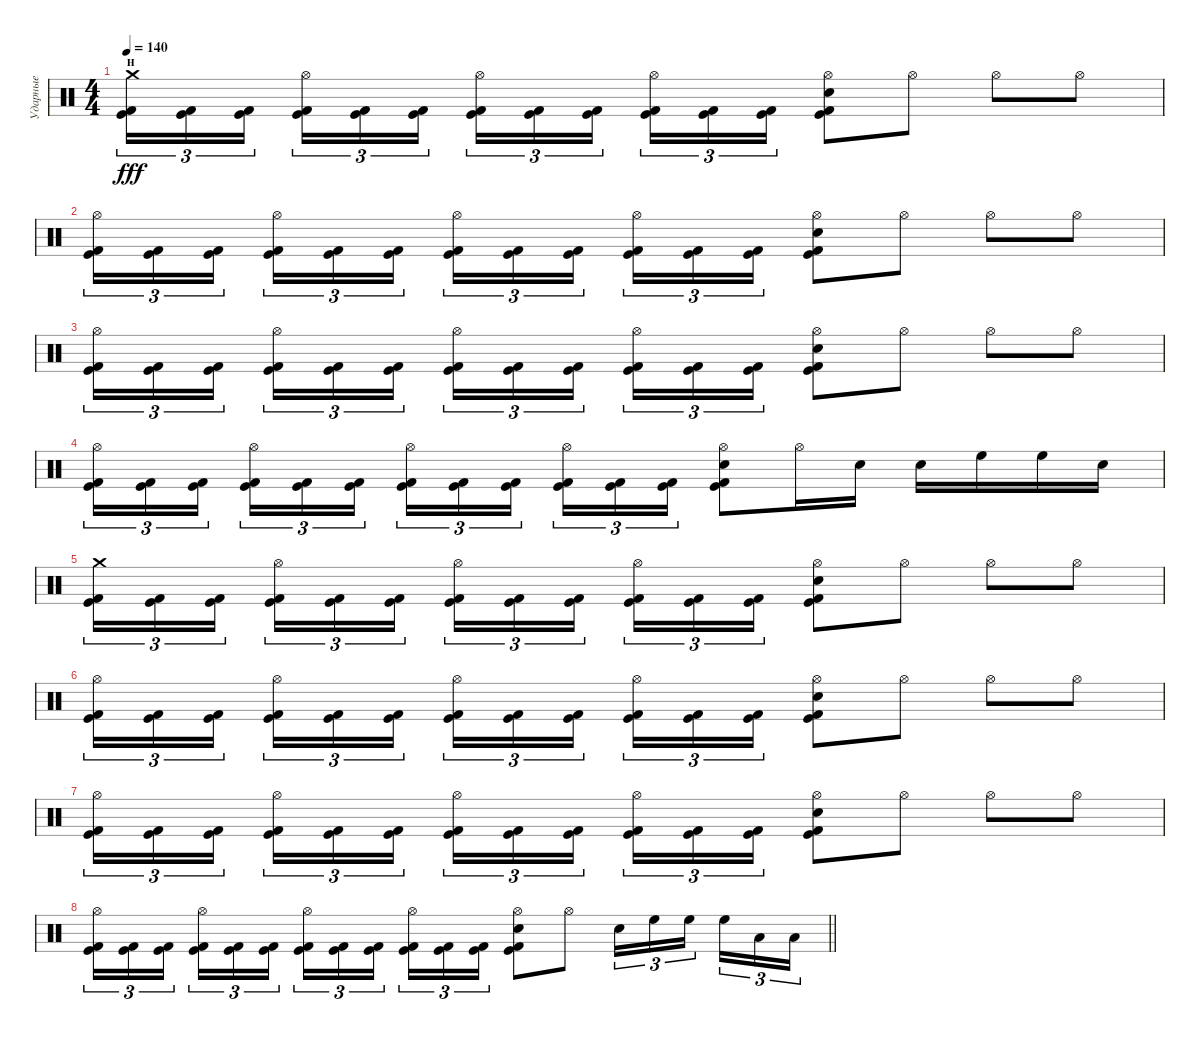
\track ("Ударные" "Ударные") {instrument percussion}
\staff {score}
\articulation defaults
\ts (4 4)
\section ("" "   н")
\tempo 140
\clef neutral
\ks c
("Kick (hit)" "Kick (hit) 2" "Crash medium (hit)").16{tu (3 2) dy fff} ("Kick (hit)" "Kick (hit) 2").16{tu (3 2)} ("Kick (hit)" "Kick (hit) 2").16{tu (3 2) beam splitsecondary} ("Hi-Hat (open)" "Kick (hit)" "Kick (hit) 2").16{tu (3 2)} ("Kick (hit)" "Kick (hit) 2").16{tu (3 2)} ("Kick (hit)" "Kick (hit) 2").16{tu (3 2)} ("Hi-Hat (open)" "Kick (hit)" "Kick (hit) 2").16{tu (3 2)} ("Kick (hit)" "Kick (hit) 2").16{tu (3 2)} ("Kick (hit)" "Kick (hit) 2").16{tu (3 2) beam splitsecondary} ("Hi-Hat (open)" "Kick (hit)" "Kick (hit) 2").16{tu (3 2)} ("Kick (hit)" "Kick (hit) 2").16{tu (3 2)} ("Kick (hit)" "Kick (hit) 2").16{tu (3 2)} ("Hi-Hat (open)" "Kick (hit)" "Kick (hit) 2" "Electric Snare (hit)").8 "Hi-Hat (open)".8 "Hi-Hat (open)".8 "Hi-Hat (open)".8 |
("Hi-Hat (open)" "Kick (hit)" "Kick (hit) 2").16{tu (3 2)} ("Kick (hit)" "Kick (hit) 2").16{tu (3 2)} ("Kick (hit)" "Kick (hit) 2").16{tu (3 2) beam splitsecondary} ("Hi-Hat (open)" "Kick (hit)" "Kick (hit) 2").16{tu (3 2)} ("Kick (hit)" "Kick (hit) 2").16{tu (3 2)} ("Kick (hit)" "Kick (hit) 2").16{tu (3 2)} ("Hi-Hat (open)" "Kick (hit)" "Kick (hit) 2").16{tu (3 2)} ("Kick (hit)" "Kick (hit) 2").16{tu (3 2)} ("Kick (hit)" "Kick (hit) 2").16{tu (3 2) beam splitsecondary} ("Hi-Hat (open)" "Kick (hit)" "Kick (hit) 2").16{tu (3 2)} ("Kick (hit)" "Kick (hit) 2").16{tu (3 2)} ("Kick (hit)" "Kick (hit) 2").16{tu (3 2)} ("Hi-Hat (open)" "Kick (hit)" "Kick (hit) 2" "Electric Snare (hit)").8 "Hi-Hat (open)".8 "Hi-Hat (open)".8 "Hi-Hat (open)".8 |
("Hi-Hat (open)" "Kick (hit)" "Kick (hit) 2").16{tu (3 2)} ("Kick (hit)" "Kick (hit) 2").16{tu (3 2)} ("Kick (hit)" "Kick (hit) 2").16{tu (3 2) beam splitsecondary} ("Hi-Hat (open)" "Kick (hit)" "Kick (hit) 2").16{tu (3 2)} ("Kick (hit)" "Kick (hit) 2").16{tu (3 2)} ("Kick (hit)" "Kick (hit) 2").16{tu (3 2)} ("Hi-Hat (open)" "Kick (hit)" "Kick (hit) 2").16{tu (3 2)} ("Kick (hit)" "Kick (hit) 2").16{tu (3 2)} ("Kick (hit)" "Kick (hit) 2").16{tu (3 2) beam splitsecondary} ("Hi-Hat (open)" "Kick (hit)" "Kick (hit) 2").16{tu (3 2)} ("Kick (hit)" "Kick (hit) 2").16{tu (3 2)} ("Kick (hit)" "Kick (hit) 2").16{tu (3 2)} ("Hi-Hat (open)" "Kick (hit)" "Kick (hit) 2" "Electric Snare (hit)").8 "Hi-Hat (open)".8 "Hi-Hat (open)".8 "Hi-Hat (open)".8 |
("Hi-Hat (open)" "Kick (hit)" "Kick (hit) 2").16{tu (3 2)} ("Kick (hit)" "Kick (hit) 2").16{tu (3 2)} ("Kick (hit)" "Kick (hit) 2").16{tu (3 2) beam splitsecondary} ("Hi-Hat (open)" "Kick (hit)" "Kick (hit) 2").16{tu (3 2)} ("Kick (hit)" "Kick (hit) 2").16{tu (3 2)} ("Kick (hit)" "Kick (hit) 2").16{tu (3 2)} ("Hi-Hat (open)" "Kick (hit)" "Kick (hit) 2").16{tu (3 2)} ("Kick (hit)" "Kick (hit) 2").16{tu (3 2)} ("Kick (hit)" "Kick (hit) 2").16{tu (3 2) beam splitsecondary} ("Hi-Hat (open)" "Kick (hit)" "Kick (hit) 2").16{tu (3 2)} ("Kick (hit)" "Kick (hit) 2").16{tu (3 2)} ("Kick (hit)" "Kick (hit) 2").16{tu (3 2)} ("Hi-Hat (open)" "Kick (hit)" "Kick (hit) 2" "Electric Snare (hit)").8 "Hi-Hat (open)".16 "Electric Snare (hit)".16 "Electric Snare (hit)".16 "High Floor Tom (hit)".16 "High Floor Tom (hit)".16 "Electric Snare (hit)".16 |
("Kick (hit)" "Kick (hit) 2" "Crash medium (hit)").16{tu (3 2)} ("Kick (hit)" "Kick (hit) 2").16{tu (3 2)} ("Kick (hit)" "Kick (hit) 2").16{tu (3 2) beam splitsecondary} ("Hi-Hat (open)" "Kick (hit)" "Kick (hit) 2").16{tu (3 2)} ("Kick (hit)" "Kick (hit) 2").16{tu (3 2)} ("Kick (hit)" "Kick (hit) 2").16{tu (3 2)} ("Hi-Hat (open)" "Kick (hit)" "Kick (hit) 2").16{tu (3 2)} ("Kick (hit)" "Kick (hit) 2").16{tu (3 2)} ("Kick (hit)" "Kick (hit) 2").16{tu (3 2) beam splitsecondary} ("Hi-Hat (open)" "Kick (hit)" "Kick (hit) 2").16{tu (3 2)} ("Kick (hit)" "Kick (hit) 2").16{tu (3 2)} ("Kick (hit)" "Kick (hit) 2").16{tu (3 2)} ("Hi-Hat (open)" "Kick (hit)" "Kick (hit) 2" "Electric Snare (hit)").8 "Hi-Hat (open)".8 "Hi-Hat (open)".8 "Hi-Hat (open)".8 |
("Hi-Hat (open)" "Kick (hit)" "Kick (hit) 2").16{tu (3 2)} ("Kick (hit)" "Kick (hit) 2").16{tu (3 2)} ("Kick (hit)" "Kick (hit) 2").16{tu (3 2) beam splitsecondary} ("Hi-Hat (open)" "Kick (hit)" "Kick (hit) 2").16{tu (3 2)} ("Kick (hit)" "Kick (hit) 2").16{tu (3 2)} ("Kick (hit)" "Kick (hit) 2").16{tu (3 2)} ("Hi-Hat (open)" "Kick (hit)" "Kick (hit) 2").16{tu (3 2)} ("Kick (hit)" "Kick (hit) 2").16{tu (3 2)} ("Kick (hit)" "Kick (hit) 2").16{tu (3 2) beam splitsecondary} ("Hi-Hat (open)" "Kick (hit)" "Kick (hit) 2").16{tu (3 2)} ("Kick (hit)" "Kick (hit) 2").16{tu (3 2)} ("Kick (hit)" "Kick (hit) 2").16{tu (3 2)} ("Hi-Hat (open)" "Kick (hit)" "Kick (hit) 2" "Electric Snare (hit)").8 "Hi-Hat (open)".8 "Hi-Hat (open)".8 "Hi-Hat (open)".8 |
("Hi-Hat (open)" "Kick (hit)" "Kick (hit) 2").16{tu (3 2)} ("Kick (hit)" "Kick (hit) 2").16{tu (3 2)} ("Kick (hit)" "Kick (hit) 2").16{tu (3 2) beam splitsecondary} ("Hi-Hat (open)" "Kick (hit)" "Kick (hit) 2").16{tu (3 2)} ("Kick (hit)" "Kick (hit) 2").16{tu (3 2)} ("Kick (hit)" "Kick (hit) 2").16{tu (3 2)} ("Hi-Hat (open)" "Kick (hit)" "Kick (hit) 2").16{tu (3 2)} ("Kick (hit)" "Kick (hit) 2").16{tu (3 2)} ("Kick (hit)" "Kick (hit) 2").16{tu (3 2) beam splitsecondary} ("Hi-Hat (open)" "Kick (hit)" "Kick (hit) 2").16{tu (3 2)} ("Kick (hit)" "Kick (hit) 2").16{tu (3 2)} ("Kick (hit)" "Kick (hit) 2").16{tu (3 2)} ("Hi-Hat (open)" "Kick (hit)" "Kick (hit) 2" "Electric Snare (hit)").8 "Hi-Hat (open)".8 "Hi-Hat (open)".8 "Hi-Hat (open)".8 |
\barLineRight lightlight
("Hi-Hat (open)" "Kick (hit)" "Kick (hit) 2").16{tu (3 2)} ("Kick (hit)" "Kick (hit) 2").16{tu (3 2)} ("Kick (hit)" "Kick (hit) 2").16{tu (3 2) beam splitsecondary} ("Hi-Hat (open)" "Kick (hit)" "Kick (hit) 2").16{tu (3 2)} ("Kick (hit)" "Kick (hit) 2").16{tu (3 2)} ("Kick (hit)" "Kick (hit) 2").16{tu (3 2)} ("Hi-Hat (open)" "Kick (hit)" "Kick (hit) 2").16{tu (3 2)} ("Kick (hit)" "Kick (hit) 2").16{tu (3 2)} ("Kick (hit)" "Kick (hit) 2").16{tu (3 2) beam splitsecondary} ("Hi-Hat (open)" "Kick (hit)" "Kick (hit) 2").16{tu (3 2)} ("Kick (hit)" "Kick (hit) 2").16{tu (3 2)} ("Kick (hit)" "Kick (hit) 2").16{tu (3 2)} ("Hi-Hat (open)" "Kick (hit)" "Kick (hit) 2" "Electric Snare (hit)").8 "Hi-Hat (open)".8 "Electric Snare (hit)".16{tu (3 2)} "High Floor Tom (hit)".16{tu (3 2)} "High Floor Tom (hit)".16{tu (3 2) beam splitsecondary} "High Floor Tom (hit)".16{tu (3 2)} "Low Tom (hit)".16{tu (3 2)} "Low Tom (hit)".16{tu (3 2)}
